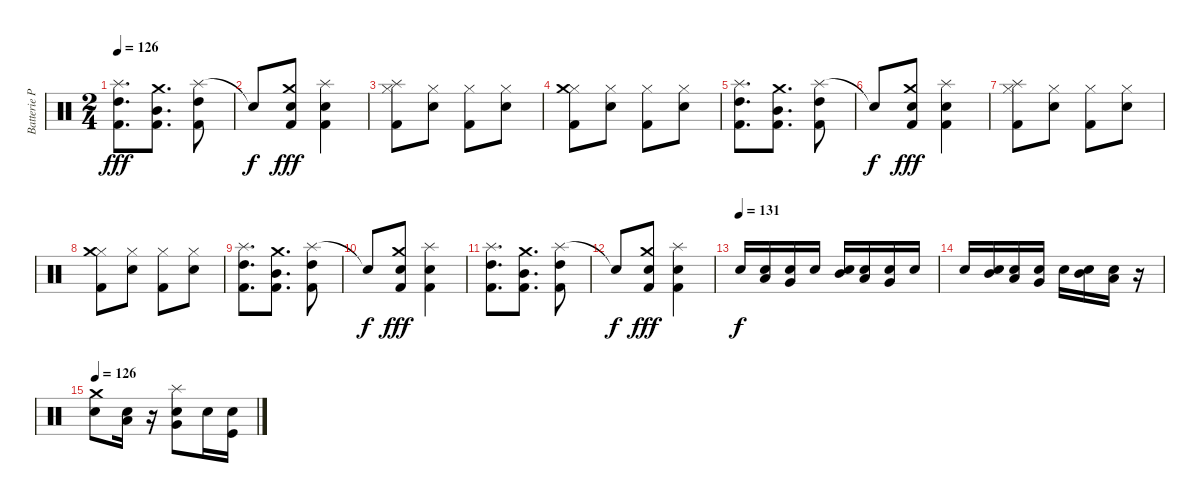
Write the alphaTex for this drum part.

\track ("Batterie Pako" "Batterie P") {instrument percussion}
\staff {score}
\articulation defaults
\ts (2 4)
\tempo 126
\clef neutral
\ks c
("Splash (hit)" "High Tom (hit)" "Kick (hit) 2").8{d dy fff} ("Crash medium (hit)" "Mid Tom (hit)" "Kick (hit) 2").8{d} ("Splash (hit)" "High Tom (hit)" "Kick (hit) 2").8 |
"Snare (hit)"{t}.8{dy f} ("Crash medium (hit)" "Kick (hit) 2" "Electric Snare (hit)").8{dy fff} ("Splash (hit)" "Kick (hit) 2" "Electric Snare (hit)").4 |
("Hi-Hat (closed)" "Kick (hit) 2" "Splash (hit)").8 ("Hi-Hat (closed)" "Electric Snare (hit)").8 ("Hi-Hat (closed)" "Kick (hit) 2").8 ("Hi-Hat (closed)" "Electric Snare (hit)").8 |
("Kick (hit) 2" "Hi-Hat (closed)" "Crash medium (hit)").8 ("Electric Snare (hit)" "Hi-Hat (closed)").8 ("Kick (hit) 2" "Hi-Hat (closed)").8 ("Electric Snare (hit)" "Hi-Hat (closed)").8 |
("Splash (hit)" "High Tom (hit)" "Kick (hit) 2").8{d} ("Crash medium (hit)" "Mid Tom (hit)" "Kick (hit) 2").8{d} ("Splash (hit)" "High Tom (hit)" "Kick (hit) 2").8 |
"Snare (hit)"{t}.8{dy f} ("Crash medium (hit)" "Kick (hit) 2" "Electric Snare (hit)").8{dy fff} ("Splash (hit)" "Kick (hit) 2" "Electric Snare (hit)").4 |
("Hi-Hat (closed)" "Kick (hit) 2" "Splash (hit)").8 ("Hi-Hat (closed)" "Electric Snare (hit)").8 ("Hi-Hat (closed)" "Kick (hit) 2").8 ("Hi-Hat (closed)" "Electric Snare (hit)").8 |
("Kick (hit) 2" "Hi-Hat (closed)" "Crash medium (hit)").8 ("Electric Snare (hit)" "Hi-Hat (closed)").8 ("Kick (hit) 2" "Hi-Hat (closed)").8 ("Electric Snare (hit)" "Hi-Hat (closed)").8 |
("Splash (hit)" "High Tom (hit)" "Kick (hit) 2").8{d} ("Crash medium (hit)" "Mid Tom (hit)" "Kick (hit) 2").8{d} ("Splash (hit)" "High Tom (hit)" "Kick (hit) 2").8 |
"Snare (hit)"{t}.8{dy f} ("Crash medium (hit)" "Kick (hit) 2" "Electric Snare (hit)").8{dy fff} ("Splash (hit)" "Kick (hit) 2" "Electric Snare (hit)").4 |
("Splash (hit)" "High Tom (hit)" "Kick (hit) 2").8{d} ("Crash medium (hit)" "Mid Tom (hit)" "Kick (hit) 2").8{d} ("Splash (hit)" "High Tom (hit)" "Kick (hit) 2").8 |
"Snare (hit)"{t}.8{dy f} ("Crash medium (hit)" "Kick (hit) 2" "Electric Snare (hit)").8{dy fff} ("Splash (hit)" "Kick (hit) 2" "Electric Snare (hit)").4 |
\tempo (131)
"Electric Snare (hit)".16{dy f} ("Electric Snare (hit)" "Low Tom (hit)").16 ("Electric Snare (hit)" "Very Low Tom (hit)").16 "Electric Snare (hit)".16 ("Mid Tom (hit)" "Electric Snare (hit)").16 ("Low Tom (hit)" "Electric Snare (hit)").16 ("Electric Snare (hit)" "Very Low Tom (hit)").16 "Electric Snare (hit)".16 |
"Electric Snare (hit)".16 ("Mid Tom (hit)" "Electric Snare (hit)").16 ("Low Tom (hit)" "Electric Snare (hit)").16 ("Very Low Tom (hit)" "Electric Snare (hit)").16 "Electric Snare (hit)".16 ("Mid Tom (hit)" "Electric Snare (hit)").16 ("Low Tom (hit)" "Electric Snare (hit)").16 r.16 |
\tempo 126
("Electric Snare (hit)" "Crash medium (hit)").8 ("Low Tom (hit)" "Electric Snare (hit)").16 r.16 ("Very Low Tom (hit)" "Electric Snare (hit)" "Splash (hit)").8 "Electric Snare (hit)".16 ("Electric Snare (hit)" "Kick (hit)").16
